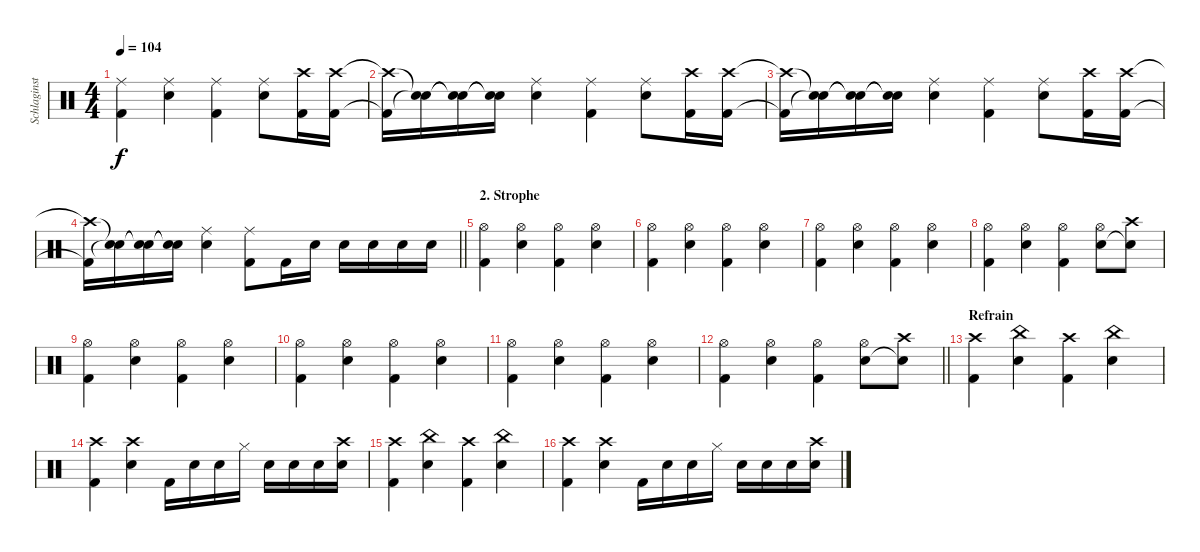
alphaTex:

\track ("Schlaginstrumente - Auswahl" "Schlaginst") {instrument percussion}
\staff {score}
\articulation defaults
\ts (4 4)
\tempo 104
\clef neutral
\ks c
("Ride (middle)" "Kick (hit) 2").4{dy f} ("Ride (middle)" "Electric Snare (hit)").4 ("Ride (middle)" "Kick (hit) 2").4 ("Ride (middle)" "Electric Snare (hit)").8 ("Crash high (hit)" "Kick (hit) 2").16 ("Crash high (hit)" "Kick (hit) 2").16 |
("Crash high (hit)"{t} "Kick (hit) 2"{t}).16 ("Snare (hit)"{t} "Snare (hit)"{t}).16 ("Snare (hit)"{t} "Snare (hit)"{t}).16 ("Snare (hit)"{t} "Snare (hit)"{t}).16 ("Ride (middle)" "Electric Snare (hit)").4 ("Ride (middle)" "Kick (hit) 2").4 ("Ride (middle)" "Electric Snare (hit)").8 ("Crash high (hit)" "Kick (hit) 2").16 ("Crash high (hit)" "Kick (hit) 2").16 |
("Crash high (hit)"{t} "Kick (hit) 2"{t}).16 ("Snare (hit)"{t} "Snare (hit)"{t}).16 ("Snare (hit)"{t} "Snare (hit)"{t}).16 ("Snare (hit)"{t} "Snare (hit)"{t}).16 ("Ride (middle)" "Electric Snare (hit)").4 ("Ride (middle)" "Kick (hit) 2").4 ("Ride (middle)" "Electric Snare (hit)").8 ("Crash high (hit)" "Kick (hit) 2").16 ("Crash high (hit)" "Kick (hit) 2").16 |
\barLineRight lightlight
("Crash high (hit)"{t} "Kick (hit) 2"{t}).16 ("Snare (hit)"{t} "Snare (hit)"{t}).16 ("Snare (hit)"{t} "Snare (hit)"{t}).16 ("Snare (hit)"{t} "Snare (hit)"{t}).16 ("Ride (middle)" "Electric Snare (hit)").4 ("Ride (middle)" "Kick (hit) 2").8 "Kick (hit) 2".16 "Electric Snare (hit)".16 "Electric Snare (hit)".16 "Electric Snare (hit)".16 "Electric Snare (hit)".16 "Electric Snare (hit)".16 |
\section ("" "2. Strophe")
("Hi-Hat (open)" "Kick (hit) 2").4 ("Hi-Hat (open)" "Electric Snare (hit)").4 ("Hi-Hat (open)" "Kick (hit) 2").4 ("Hi-Hat (open)" "Electric Snare (hit)").4 |
("Hi-Hat (open)" "Kick (hit) 2").4 ("Hi-Hat (open)" "Electric Snare (hit)").4 ("Hi-Hat (open)" "Kick (hit) 2").4 ("Hi-Hat (open)" "Electric Snare (hit)").4 |
("Hi-Hat (open)" "Kick (hit) 2").4 ("Hi-Hat (open)" "Electric Snare (hit)").4 ("Hi-Hat (open)" "Kick (hit) 2").4 ("Hi-Hat (open)" "Electric Snare (hit)").4 |
("Hi-Hat (open)" "Kick (hit) 2").4 ("Hi-Hat (open)" "Electric Snare (hit)").4 ("Hi-Hat (open)" "Kick (hit) 2").4 ("Hi-Hat (open)" "Electric Snare (hit)").8 ("Crash high (hit)" "Electric Snare (hit)"{t}).8 |
("Hi-Hat (open)" "Kick (hit) 2").4 ("Hi-Hat (open)" "Electric Snare (hit)").4 ("Hi-Hat (open)" "Kick (hit) 2").4 ("Hi-Hat (open)" "Electric Snare (hit)").4 |
("Hi-Hat (open)" "Kick (hit) 2").4 ("Hi-Hat (open)" "Electric Snare (hit)").4 ("Hi-Hat (open)" "Kick (hit) 2").4 ("Hi-Hat (open)" "Electric Snare (hit)").4 |
("Hi-Hat (open)" "Kick (hit) 2").4 ("Hi-Hat (open)" "Electric Snare (hit)").4 ("Hi-Hat (open)" "Kick (hit) 2").4 ("Hi-Hat (open)" "Electric Snare (hit)").4 |
\barLineRight lightlight
("Hi-Hat (open)" "Kick (hit) 2").4 ("Hi-Hat (open)" "Electric Snare (hit)").4 ("Hi-Hat (open)" "Kick (hit) 2").4 ("Hi-Hat (open)" "Electric Snare (hit)").8 ("Crash high (hit)" "Electric Snare (hit)"{t}).8 |
\section ("" "Refrain")
("Crash high (hit)" "Kick (hit) 2").4 ("China (hit)" "Electric Snare (hit)").4 ("Crash high (hit)" "Kick (hit) 2").4 ("China (hit)" "Electric Snare (hit)").4 |
("Crash high (hit)" "Kick (hit) 2").4 ("Crash high (hit)" "Electric Snare (hit)").4 "Kick (hit) 2".16 "Electric Snare (hit)".16 "Electric Snare (hit)".16 "Hi-Hat (closed)".16 "Electric Snare (hit)".16 "Electric Snare (hit)".16 "Electric Snare (hit)".16 ("Crash high (hit)" "Electric Snare (hit)").16 |
("Crash high (hit)" "Kick (hit) 2").4 ("China (hit)" "Electric Snare (hit)").4 ("Crash high (hit)" "Kick (hit) 2").4 ("China (hit)" "Electric Snare (hit)").4 |
("Crash high (hit)" "Kick (hit) 2").4 ("Crash high (hit)" "Electric Snare (hit)").4 "Kick (hit) 2".16 "Electric Snare (hit)".16 "Electric Snare (hit)".16 "Hi-Hat (closed)".16 "Electric Snare (hit)".16 "Electric Snare (hit)".16 "Electric Snare (hit)".16 ("Crash high (hit)" "Electric Snare (hit)").16
